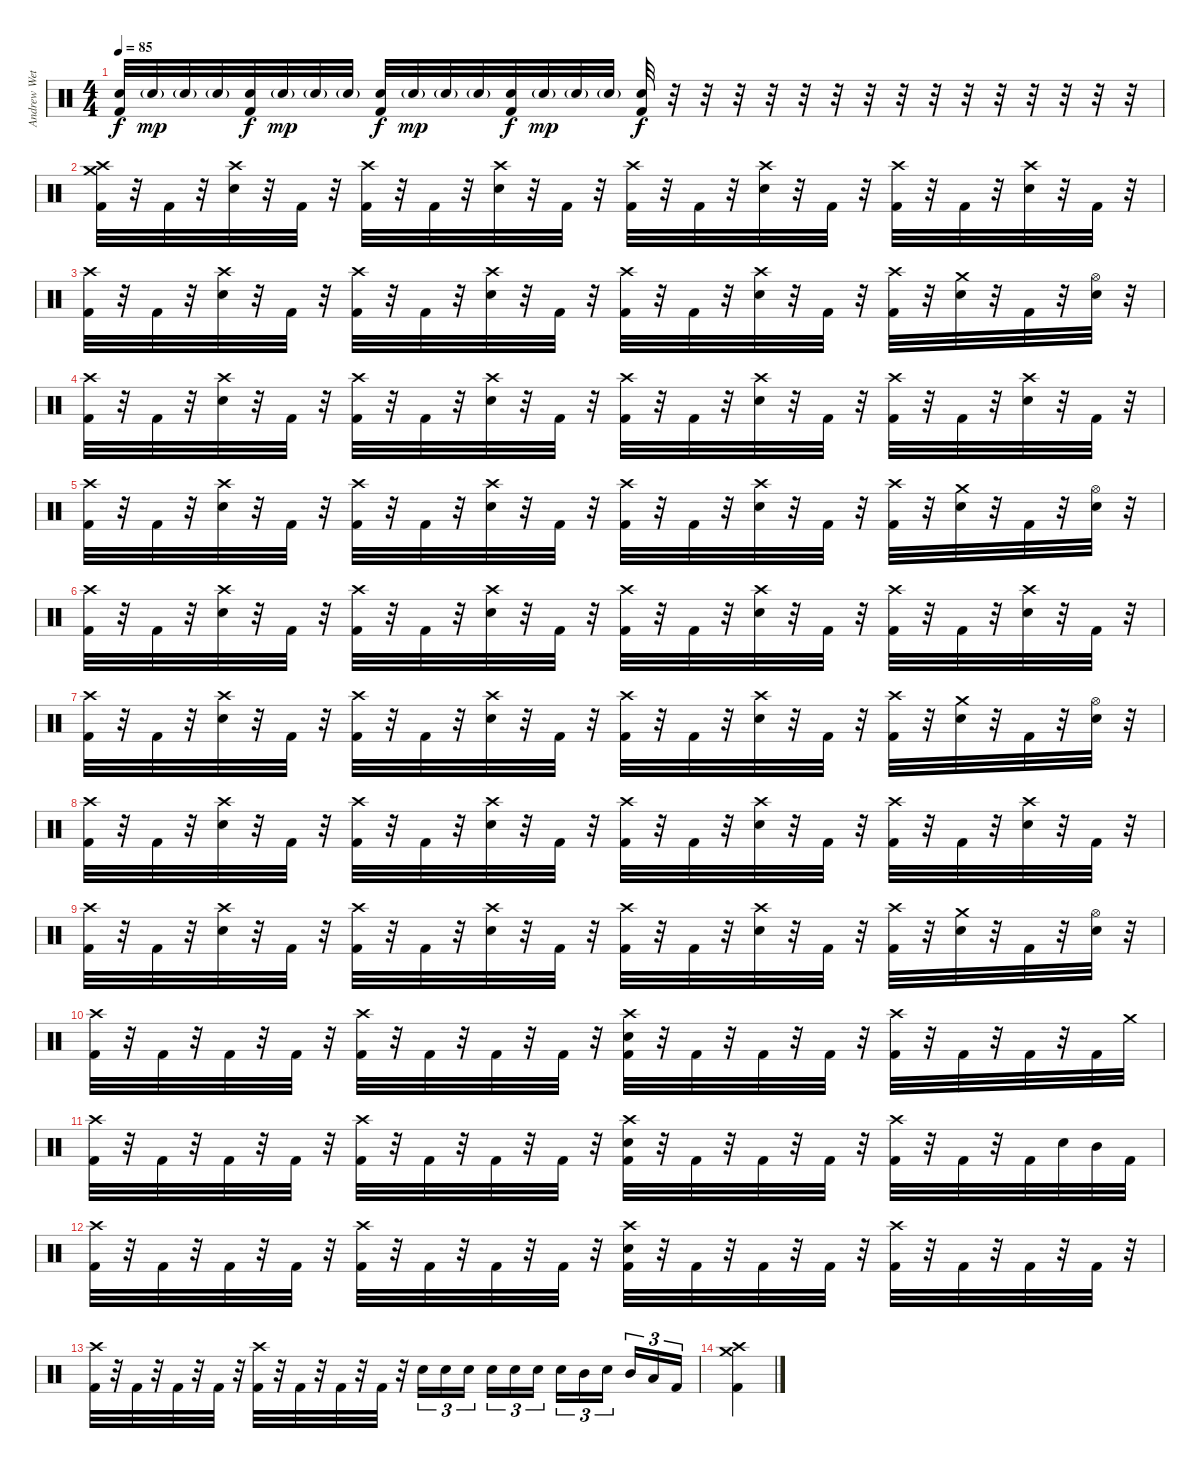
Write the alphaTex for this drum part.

\track ("Andrew Wetzel" "Andrew Wet") {instrument percussion}
\staff {score}
\articulation defaults
\ts (4 4)
\tempo 85
\clef neutral
\ks c
("Electric Snare (hit)" "Kick (hit) 2").32{dy f} "Electric Snare (hit)"{g}.32{dy mp} "Electric Snare (hit)"{g}.32 "Electric Snare (hit)"{g}.32 ("Electric Snare (hit)" "Kick (hit) 2").32{dy f} "Electric Snare (hit)"{g}.32{dy mp} "Electric Snare (hit)"{g}.32 "Electric Snare (hit)"{g}.32 ("Electric Snare (hit)" "Kick (hit) 2").32{dy f} "Electric Snare (hit)"{g}.32{dy mp} "Electric Snare (hit)"{g}.32 "Electric Snare (hit)"{g}.32 ("Electric Snare (hit)" "Kick (hit) 2").32{dy f} "Electric Snare (hit)"{g}.32{dy mp} "Electric Snare (hit)"{g}.32 "Electric Snare (hit)"{g}.32 ("Electric Snare (hit)" "Kick (hit) 2").32{dy f} r.32 r.32 r.32 r.32 r.32 r.32 r.32 r.32 r.32 r.32 r.32 r.32 r.32 r.32 r.32 |
("Crash medium (hit)" "Crash high (hit)" "Kick (hit) 2").32 r.32 "Kick (hit) 2".32 r.32 ("Crash high (hit)" "Electric Snare (hit)").32 r.32 "Kick (hit) 2".32 r.32 ("Crash high (hit)" "Kick (hit) 2").32 r.32 "Kick (hit) 2".32 r.32 ("Crash high (hit)" "Electric Snare (hit)").32 r.32 "Kick (hit) 2".32 r.32 ("Crash high (hit)" "Kick (hit) 2").32 r.32 "Kick (hit) 2".32 r.32 ("Crash high (hit)" "Electric Snare (hit)").32 r.32 "Kick (hit) 2".32 r.32 ("Crash high (hit)" "Kick (hit) 2").32 r.32 "Kick (hit) 2".32 r.32 ("Crash high (hit)" "Electric Snare (hit)").32 r.32 "Kick (hit) 2".32 r.32 |
("Crash high (hit)" "Kick (hit) 2").32 r.32 "Kick (hit) 2".32 r.32 ("Crash high (hit)" "Electric Snare (hit)").32 r.32 "Kick (hit) 2".32 r.32 ("Crash high (hit)" "Kick (hit) 2").32 r.32 "Kick (hit) 2".32 r.32 ("Crash high (hit)" "Electric Snare (hit)").32 r.32 "Kick (hit) 2".32 r.32 ("Crash high (hit)" "Kick (hit) 2").32 r.32 "Kick (hit) 2".32 r.32 ("Crash high (hit)" "Electric Snare (hit)").32 r.32 "Kick (hit) 2".32 r.32 ("Crash high (hit)" "Kick (hit) 2").32 r.32 ("Crash medium (hit)" "Electric Snare (hit)").32 r.32 "Kick (hit) 2".32 r.32 ("Hi-Hat (open)" "Electric Snare (hit)").32 r.32 |
("Crash high (hit)" "Kick (hit) 2").32 r.32 "Kick (hit) 2".32 r.32 ("Crash high (hit)" "Electric Snare (hit)").32 r.32 "Kick (hit) 2".32 r.32 ("Crash high (hit)" "Kick (hit) 2").32 r.32 "Kick (hit) 2".32 r.32 ("Crash high (hit)" "Electric Snare (hit)").32 r.32 "Kick (hit) 2".32 r.32 ("Crash high (hit)" "Kick (hit) 2").32 r.32 "Kick (hit) 2".32 r.32 ("Crash high (hit)" "Electric Snare (hit)").32 r.32 "Kick (hit) 2".32 r.32 ("Crash high (hit)" "Kick (hit) 2").32 r.32 "Kick (hit) 2".32 r.32 ("Crash high (hit)" "Electric Snare (hit)").32 r.32 "Kick (hit) 2".32 r.32 |
("Crash high (hit)" "Kick (hit) 2").32 r.32 "Kick (hit) 2".32 r.32 ("Crash high (hit)" "Electric Snare (hit)").32 r.32 "Kick (hit) 2".32 r.32 ("Crash high (hit)" "Kick (hit) 2").32 r.32 "Kick (hit) 2".32 r.32 ("Crash high (hit)" "Electric Snare (hit)").32 r.32 "Kick (hit) 2".32 r.32 ("Crash high (hit)" "Kick (hit) 2").32 r.32 "Kick (hit) 2".32 r.32 ("Crash high (hit)" "Electric Snare (hit)").32 r.32 "Kick (hit) 2".32 r.32 ("Crash high (hit)" "Kick (hit) 2").32 r.32 ("Crash medium (hit)" "Electric Snare (hit)").32 r.32 "Kick (hit) 2".32 r.32 ("Hi-Hat (open)" "Electric Snare (hit)").32 r.32 |
("Crash high (hit)" "Kick (hit) 2").32 r.32 "Kick (hit) 2".32 r.32 ("Crash high (hit)" "Electric Snare (hit)").32 r.32 "Kick (hit) 2".32 r.32 ("Crash high (hit)" "Kick (hit) 2").32 r.32 "Kick (hit) 2".32 r.32 ("Crash high (hit)" "Electric Snare (hit)").32 r.32 "Kick (hit) 2".32 r.32 ("Crash high (hit)" "Kick (hit) 2").32 r.32 "Kick (hit) 2".32 r.32 ("Crash high (hit)" "Electric Snare (hit)").32 r.32 "Kick (hit) 2".32 r.32 ("Crash high (hit)" "Kick (hit) 2").32 r.32 "Kick (hit) 2".32 r.32 ("Crash high (hit)" "Electric Snare (hit)").32 r.32 "Kick (hit) 2".32 r.32 |
("Crash high (hit)" "Kick (hit) 2").32 r.32 "Kick (hit) 2".32 r.32 ("Crash high (hit)" "Electric Snare (hit)").32 r.32 "Kick (hit) 2".32 r.32 ("Crash high (hit)" "Kick (hit) 2").32 r.32 "Kick (hit) 2".32 r.32 ("Crash high (hit)" "Electric Snare (hit)").32 r.32 "Kick (hit) 2".32 r.32 ("Crash high (hit)" "Kick (hit) 2").32 r.32 "Kick (hit) 2".32 r.32 ("Crash high (hit)" "Electric Snare (hit)").32 r.32 "Kick (hit) 2".32 r.32 ("Crash high (hit)" "Kick (hit) 2").32 r.32 ("Crash medium (hit)" "Electric Snare (hit)").32 r.32 "Kick (hit) 2".32 r.32 ("Hi-Hat (open)" "Electric Snare (hit)").32 r.32 |
("Crash high (hit)" "Kick (hit) 2").32 r.32 "Kick (hit) 2".32 r.32 ("Crash high (hit)" "Electric Snare (hit)").32 r.32 "Kick (hit) 2".32 r.32 ("Crash high (hit)" "Kick (hit) 2").32 r.32 "Kick (hit) 2".32 r.32 ("Crash high (hit)" "Electric Snare (hit)").32 r.32 "Kick (hit) 2".32 r.32 ("Crash high (hit)" "Kick (hit) 2").32 r.32 "Kick (hit) 2".32 r.32 ("Crash high (hit)" "Electric Snare (hit)").32 r.32 "Kick (hit) 2".32 r.32 ("Crash high (hit)" "Kick (hit) 2").32 r.32 "Kick (hit) 2".32 r.32 ("Crash high (hit)" "Electric Snare (hit)").32 r.32 "Kick (hit) 2".32 r.32 |
("Crash high (hit)" "Kick (hit) 2").32 r.32 "Kick (hit) 2".32 r.32 ("Crash high (hit)" "Electric Snare (hit)").32 r.32 "Kick (hit) 2".32 r.32 ("Crash high (hit)" "Kick (hit) 2").32 r.32 "Kick (hit) 2".32 r.32 ("Crash high (hit)" "Electric Snare (hit)").32 r.32 "Kick (hit) 2".32 r.32 ("Crash high (hit)" "Kick (hit) 2").32 r.32 "Kick (hit) 2".32 r.32 ("Crash high (hit)" "Electric Snare (hit)").32 r.32 "Kick (hit) 2".32 r.32 ("Crash high (hit)" "Kick (hit) 2").32 r.32 ("Crash medium (hit)" "Electric Snare (hit)").32 r.32 "Kick (hit) 2".32 r.32 ("Hi-Hat (open)" "Electric Snare (hit)").32 r.32 |
("Crash high (hit)" "Kick (hit) 2").32 r.32 "Kick (hit) 2".32 r.32 "Kick (hit) 2".32 r.32 "Kick (hit) 2".32 r.32 ("Crash high (hit)" "Kick (hit) 2").32 r.32 "Kick (hit) 2".32 r.32 "Kick (hit) 2".32 r.32 "Kick (hit) 2".32 r.32 ("Crash high (hit)" "Electric Snare (hit)" "Kick (hit) 2").32 r.32 "Kick (hit) 2".32 r.32 "Kick (hit) 2".32 r.32 "Kick (hit) 2".32 r.32 ("Crash high (hit)" "Kick (hit) 2").32 r.32 "Kick (hit) 2".32 r.32 "Kick (hit) 2".32 r.32 "Kick (hit) 2".32 "Crash medium (hit)".32 |
("Crash high (hit)" "Kick (hit) 2").32 r.32 "Kick (hit) 2".32 r.32 "Kick (hit) 2".32 r.32 "Kick (hit) 2".32 r.32 ("Crash high (hit)" "Kick (hit) 2").32 r.32 "Kick (hit) 2".32 r.32 "Kick (hit) 2".32 r.32 "Kick (hit) 2".32 r.32 ("Crash high (hit)" "Electric Snare (hit)" "Kick (hit) 2").32 r.32 "Kick (hit) 2".32 r.32 "Kick (hit) 2".32 r.32 "Kick (hit) 2".32 r.32 ("Crash high (hit)" "Kick (hit) 2").32 r.32 "Kick (hit) 2".32 r.32 "Kick (hit) 2".32 "Electric Snare (hit)".32 "Mid Tom (hit)".32 "Kick (hit) 2".32 |
("Crash high (hit)" "Kick (hit) 2").32 r.32 "Kick (hit) 2".32 r.32 "Kick (hit) 2".32 r.32 "Kick (hit) 2".32 r.32 ("Crash high (hit)" "Kick (hit) 2").32 r.32 "Kick (hit) 2".32 r.32 "Kick (hit) 2".32 r.32 "Kick (hit) 2".32 r.32 ("Crash high (hit)" "Electric Snare (hit)" "Kick (hit) 2").32 r.32 "Kick (hit) 2".32 r.32 "Kick (hit) 2".32 r.32 "Kick (hit) 2".32 r.32 ("Crash high (hit)" "Kick (hit) 2").32 r.32 "Kick (hit) 2".32 r.32 "Kick (hit) 2".32 r.32 "Kick (hit) 2".32 r.32 |
("Crash high (hit)" "Kick (hit) 2").32 r.32 "Kick (hit) 2".32 r.32 "Kick (hit) 2".32 r.32 "Kick (hit) 2".32 r.32 ("Crash high (hit)" "Kick (hit) 2").32 r.32 "Kick (hit) 2".32 r.32 "Kick (hit) 2".32 r.32 "Kick (hit) 2".32 r.32 "Electric Snare (hit)".16{tu (3 2)} "Electric Snare (hit)".16{tu (3 2)} "Electric Snare (hit)".16{tu (3 2) beam splitsecondary} "Electric Snare (hit)".16{tu (3 2)} "Electric Snare (hit)".16{tu (3 2)} "Electric Snare (hit)".16{tu (3 2)} "Electric Snare (hit)".16{tu (3 2)} "Mid Tom (hit)".16{tu (3 2)} "Electric Snare (hit)".16{tu (3 2) beam splitsecondary} "Mid Tom (hit)".16{tu (3 2)} "Low Tom (hit)".16{tu (3 2)} "Kick (hit) 2".16{tu (3 2)} |
("Crash medium (hit)" "Crash high (hit)" "Kick (hit) 2").4
